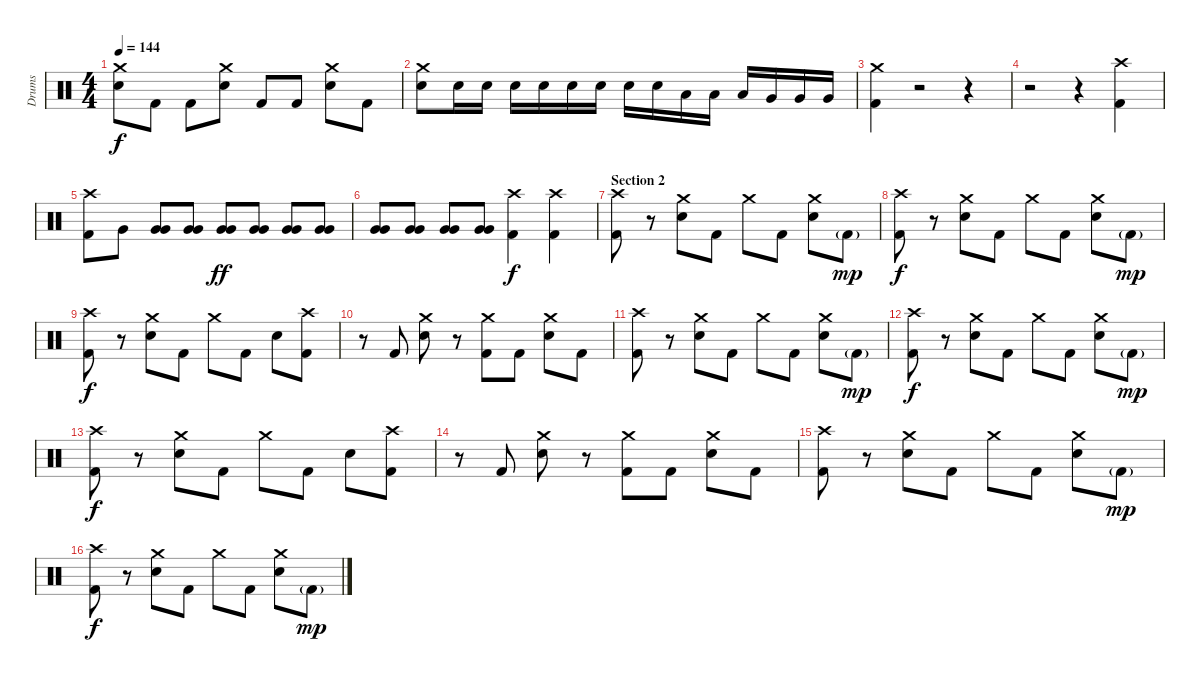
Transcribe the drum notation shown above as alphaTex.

\track ("Drums" "Drums") {instrument percussion}
\staff {score}
\articulation defaults
\ts (4 4)
\tempo 144
\clef neutral
\ks c
("Crash medium (hit)" "Snare (hit) 2").8{dy f} "Kick (hit) 2".8 "Kick (hit) 2".8 ("Crash medium (hit)" "Snare (hit) 2").8 "Kick (hit) 2".8 "Kick (hit) 2".8 ("Crash medium (hit)" "Snare (hit) 2").8 "Kick (hit) 2".8 |
("Crash medium (hit)" "Snare (hit) 2").8 "Snare (hit) 2".16 "Snare (hit) 2".16 "Snare (hit) 2".16 "Snare (hit) 2".16 "Snare (hit) 2".16 "Snare (hit) 2".16 "Snare (hit) 2".16 "Snare (hit) 2".16 "Low Tom (hit)".16 "Low Tom (hit)".16 "Low Tom (hit)".16 "Very Low Tom (hit)".16 "Very Low Tom (hit)".16 "Very Low Tom (hit)".16 |
("Crash medium (hit)" "Kick (hit) 2").4 r.2 r.4 |
r.2 r.4 ("Crash high (hit)" "Kick (hit) 2").4 |
("Crash high (hit)" "Kick (hit) 2").8 "Very Low Tom (hit)".8 ("Very Low Tom (hit)" "Very Low Tom (hit)").8{bd 60} ("Very Low Tom (hit)" "Very Low Tom (hit)").8{bd 60} ("Very Low Tom (hit)" "Very Low Tom (hit)").8{bd 60 dy ff} ("Very Low Tom (hit)" "Very Low Tom (hit)").8{bd 60} ("Very Low Tom (hit)" "Very Low Tom (hit)").8{bd 60} ("Very Low Tom (hit)" "Very Low Tom (hit)").8{bd 60} |
("Very Low Tom (hit)" "Very Low Tom (hit)").8{bd 60} ("Very Low Tom (hit)" "Very Low Tom (hit)").8{bd 60} ("Very Low Tom (hit)" "Very Low Tom (hit)").8{bd 60} ("Very Low Tom (hit)" "Very Low Tom (hit)").8{bd 60} ("Crash high (hit)" "Kick (hit) 2").4{dy f} ("Crash high (hit)" "Kick (hit) 2").4 |
\section ("" "Section 2")
("Crash high (hit)" "Kick (hit) 2").8 r.8 ("Crash medium (hit)" "Snare (hit) 2").8 "Kick (hit) 2".8 "Crash medium (hit)".8 "Kick (hit) 2".8 ("Crash medium (hit)" "Snare (hit) 2").8 "Kick (hit) 2"{g}.8{dy mp} |
("Crash high (hit)" "Kick (hit) 2").8{dy f} r.8 ("Crash medium (hit)" "Snare (hit) 2").8 "Kick (hit) 2".8 "Crash medium (hit)".8 "Kick (hit) 2".8 ("Crash medium (hit)" "Snare (hit) 2").8 "Kick (hit) 2"{g}.8{dy mp} |
("Crash high (hit)" "Kick (hit) 2").8{dy f} r.8 ("Crash medium (hit)" "Snare (hit) 2").8 "Kick (hit) 2".8 "Crash medium (hit)".8 "Kick (hit) 2".8 "Snare (hit) 2".8 ("Crash high (hit)" "Kick (hit) 2").8 |
r.8 "Kick (hit) 2".8 ("Crash medium (hit)" "Snare (hit) 2").8 r.8 ("Crash medium (hit)" "Kick (hit) 2").8 "Kick (hit) 2".8 ("Crash medium (hit)" "Snare (hit) 2").8 "Kick (hit) 2".8 |
("Crash high (hit)" "Kick (hit) 2").8 r.8 ("Crash medium (hit)" "Snare (hit) 2").8 "Kick (hit) 2".8 "Crash medium (hit)".8 "Kick (hit) 2".8 ("Crash medium (hit)" "Snare (hit) 2").8 "Kick (hit) 2"{g}.8{dy mp} |
("Crash high (hit)" "Kick (hit) 2").8{dy f} r.8 ("Crash medium (hit)" "Snare (hit) 2").8 "Kick (hit) 2".8 "Crash medium (hit)".8 "Kick (hit) 2".8 ("Crash medium (hit)" "Snare (hit) 2").8 "Kick (hit) 2"{g}.8{dy mp} |
("Crash high (hit)" "Kick (hit) 2").8{dy f} r.8 ("Crash medium (hit)" "Snare (hit) 2").8 "Kick (hit) 2".8 "Crash medium (hit)".8 "Kick (hit) 2".8 "Snare (hit) 2".8 ("Crash high (hit)" "Kick (hit) 2").8 |
r.8 "Kick (hit) 2".8 ("Crash medium (hit)" "Snare (hit) 2").8 r.8 ("Crash medium (hit)" "Kick (hit) 2").8 "Kick (hit) 2".8 ("Crash medium (hit)" "Snare (hit) 2").8 "Kick (hit) 2".8 |
("Crash high (hit)" "Kick (hit) 2").8 r.8 ("Crash medium (hit)" "Snare (hit) 2").8 "Kick (hit) 2".8 "Crash medium (hit)".8 "Kick (hit) 2".8 ("Crash medium (hit)" "Snare (hit) 2").8 "Kick (hit) 2"{g}.8{dy mp} |
("Crash high (hit)" "Kick (hit) 2").8{dy f} r.8 ("Crash medium (hit)" "Snare (hit) 2").8 "Kick (hit) 2".8 "Crash medium (hit)".8 "Kick (hit) 2".8 ("Crash medium (hit)" "Snare (hit) 2").8 "Kick (hit) 2"{g}.8{dy mp}
